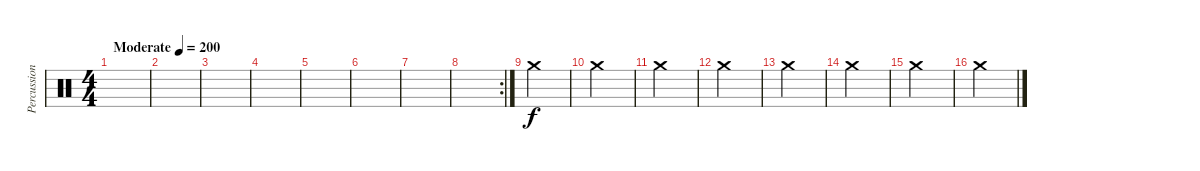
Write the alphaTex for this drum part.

\track ("Percussion" "Percussion") {instrument percussion}
\staff {score}
\articulation defaults
\ts (4 4)
\tempo (200 "Moderate")
\clef neutral
\ks c
|
|
|
|
|
|
|
\rc 2
|
"Crash medium (hit)".4 |
"Crash medium (hit)".4 |
"Crash medium (hit)".4 |
"Crash medium (hit)".4 |
"Crash medium (hit)".4 |
"Crash medium (hit)".4 |
"Crash medium (hit)".4 |
"Crash medium (hit)".4
